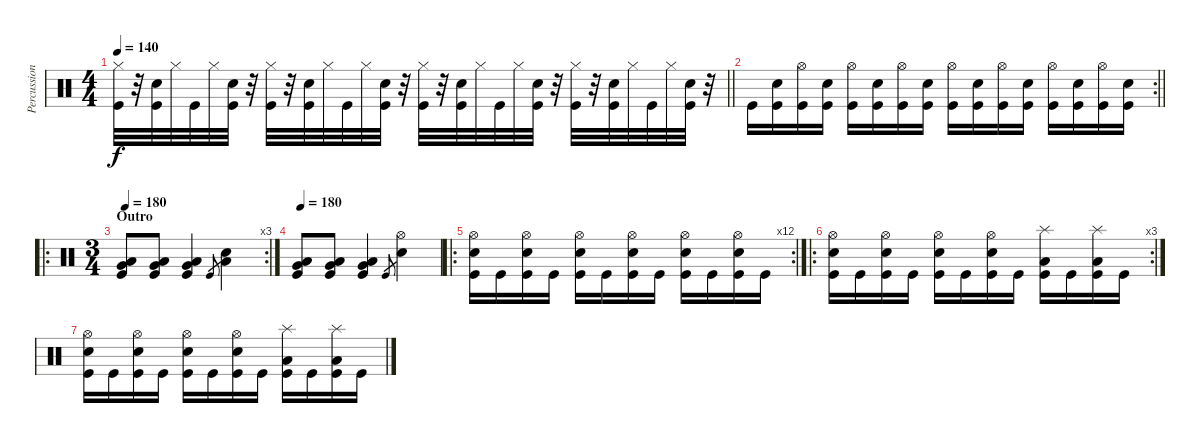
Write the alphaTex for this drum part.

\track ("Percussion" "Percussion") {instrument percussion}
\staff {score}
\articulation defaults
\ts (4 4)
\tempo 140
\clef neutral
\barLineRight lightlight
\ks c
("Kick (hit)" "Hi-Hat (closed)").32{dy f} r.32 ("Kick (hit)" "Snare (hit) 2").32 "Hi-Hat (closed)".32 "Kick (hit)".32 "Hi-Hat (closed)".32 ("Kick (hit)" "Snare (hit) 2").32 r.32 ("Kick (hit)" "Hi-Hat (closed)").32 r.32 ("Kick (hit)" "Snare (hit) 2").32 "Hi-Hat (closed)".32 "Kick (hit)".32 "Hi-Hat (closed)".32 ("Kick (hit)" "Snare (hit) 2").32 r.32 ("Kick (hit)" "Hi-Hat (closed)").32 r.32 ("Kick (hit)" "Snare (hit) 2").32 "Hi-Hat (closed)".32 "Kick (hit)".32 "Hi-Hat (closed)".32 ("Kick (hit)" "Snare (hit) 2").32 r.32 ("Kick (hit)" "Hi-Hat (closed)").32 r.32 ("Kick (hit)" "Snare (hit) 2").32 "Hi-Hat (closed)".32 "Kick (hit)".32 "Hi-Hat (closed)".32 ("Kick (hit)" "Snare (hit) 2").32 r.32 |
\rc 2
\barLineRight lightlight "Kick (hit)".16
("Kick (hit)" "Snare (hit) 2").16 ("Kick (hit)" "Hi-Hat (open)").16 ("Kick (hit)" "Snare (hit) 2").16 ("Kick (hit)" "Hi-Hat (open)").16 ("Kick (hit)" "Snare (hit) 2").16 ("Kick (hit)" "Hi-Hat (open)").16 ("Kick (hit)" "Snare (hit) 2").16 ("Kick (hit)" "Hi-Hat (open)").16 ("Kick (hit)" "Snare (hit) 2").16 ("Kick (hit)" "Hi-Hat (open)").16 ("Kick (hit)" "Snare (hit) 2").16 ("Kick (hit)" "Hi-Hat (open)").16 ("Kick (hit)" "Snare (hit) 2").16 ("Kick (hit)" "Hi-Hat (open)").16 ("Kick (hit)" "Snare (hit) 2").16 |
\ro
\rc 3
\ts (3 4)
\section ("" "Outro")
\tempo 180
("Kick (hit)" "Very Low Tom (hit)" "Low Floor Tom (hit)").8 ("Kick (hit)" "Very Low Tom (hit)" "Low Floor Tom (hit)").8 ("Kick (hit)" "Very Low Tom (hit)" "Low Floor Tom (hit)").4 "Kick (hit)".8{gr} ("Low Floor Tom (hit)" "Snare (hit) 2").4 |
\tempo 180
("Kick (hit)" "Very Low Tom (hit)" "Low Floor Tom (hit)").8 ("Kick (hit)" "Very Low Tom (hit)" "Low Floor Tom (hit)").8 ("Kick (hit)" "Very Low Tom (hit)" "Low Floor Tom (hit)").4 "Kick (hit)".8{gr} ("Hi-Hat (open)" "Snare (hit) 2").4 |
\ro
\rc 12
("Kick (hit)" "Snare (hit) 2" "Hi-Hat (open)").16 "Kick (hit)".16 ("Kick (hit)" "Snare (hit) 2" "Hi-Hat (open)").16 "Kick (hit)".16 ("Kick (hit)" "Snare (hit) 2" "Hi-Hat (open)").16 "Kick (hit)".16 ("Kick (hit)" "Snare (hit) 2" "Hi-Hat (open)").16 "Kick (hit)".16 ("Kick (hit)" "Snare (hit) 2" "Hi-Hat (open)").16 "Kick (hit)".16 ("Kick (hit)" "Snare (hit) 2" "Hi-Hat (open)").16 "Kick (hit)".16 |
\ro
\rc 3
("Kick (hit)" "Snare (hit) 2" "Hi-Hat (open)").16 "Kick (hit)".16 ("Kick (hit)" "Snare (hit) 2" "Hi-Hat (open)").16 "Kick (hit)".16 ("Kick (hit)" "Snare (hit) 2" "Hi-Hat (open)").16 "Kick (hit)".16 ("Kick (hit)" "Snare (hit) 2" "Hi-Hat (open)").16 "Kick (hit)".16 ("Kick (hit)" "Splash (hit)" "Low Floor Tom (hit)").16 "Kick (hit)".16 ("Kick (hit)" "Splash (hit)" "Low Floor Tom (hit)").16 "Kick (hit)".16 |
("Kick (hit)" "Snare (hit) 2" "Hi-Hat (open)").16 "Kick (hit)".16 ("Kick (hit)" "Snare (hit) 2" "Hi-Hat (open)").16 "Kick (hit)".16 ("Kick (hit)" "Snare (hit) 2" "Hi-Hat (open)").16 "Kick (hit)".16 ("Kick (hit)" "Snare (hit) 2" "Hi-Hat (open)").16 "Kick (hit)".16 ("Kick (hit)" "Splash (hit)" "Low Floor Tom (hit)").16 "Kick (hit)".16 ("Kick (hit)" "Splash (hit)" "Low Floor Tom (hit)").16 "Kick (hit)".16
